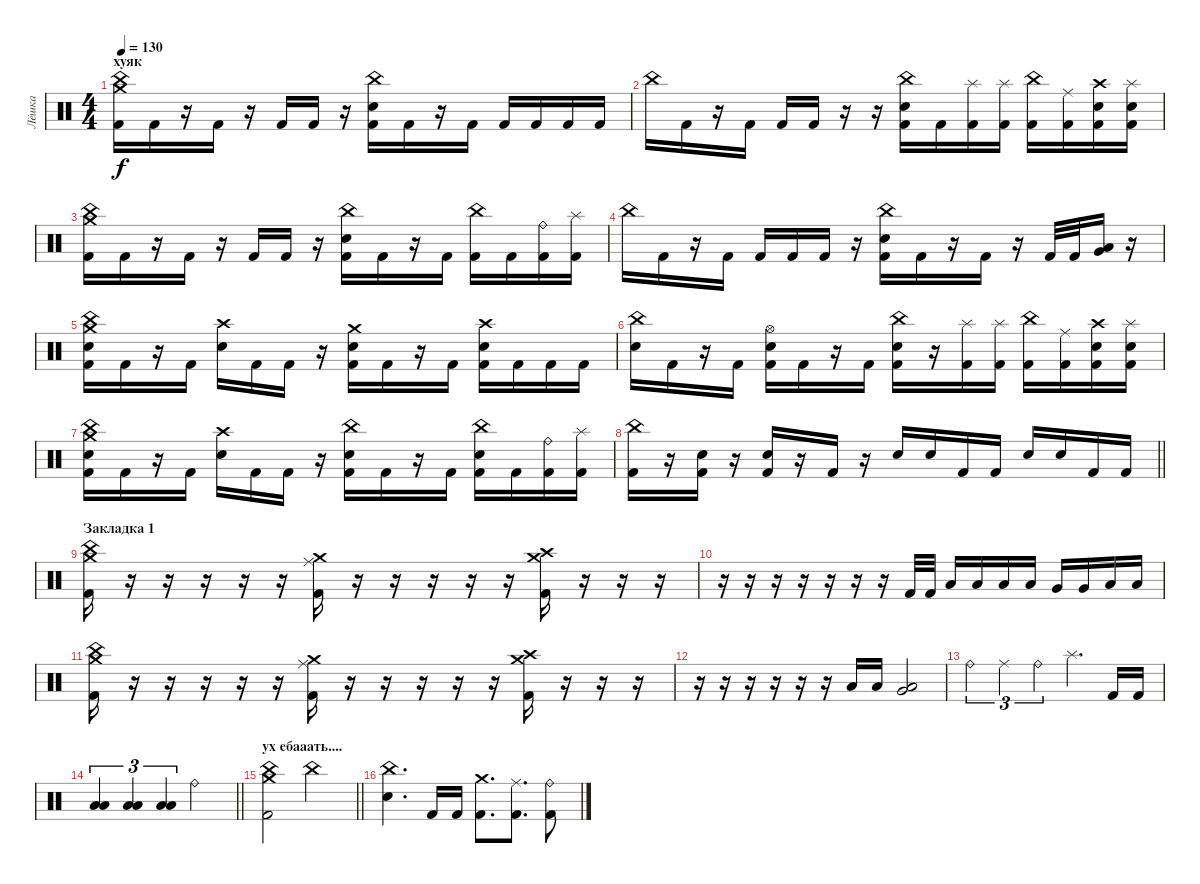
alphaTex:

\track ("Лёшка" "Лёшка") {instrument percussion}
\staff {score}
\articulation defaults
\ts (4 4)
\section ("" "хуяк")
\tempo 130
\clef neutral
\ks c
("China (hit)" "Crash medium (hit)" "Kick (hit) 2").16{dy f} "Kick (hit) 2".16 r.16 "Kick (hit) 2".16 r.16 "Kick (hit) 2".16 "Kick (hit) 2".16 r.16 ("China (hit)" "Electric Snare (hit)" "Kick (hit) 2").16 "Kick (hit) 2".16 r.16 "Kick (hit) 2".16 "Kick (hit) 2".16 "Kick (hit) 2".16 "Kick (hit) 2".16 "Kick (hit) 2".16 |
"China (hit)".16 "Kick (hit) 2".16 r.16 "Kick (hit) 2".16 "Kick (hit) 2".16 "Kick (hit) 2".16 r.16 r.16 ("China (hit)" "Electric Snare (hit)" "Kick (hit) 2").16 "Kick (hit) 2".16 ("Splash (hit)" "Kick (hit) 2").16 ("Splash (hit)" "Kick (hit) 2").16 ("China (hit)" "Kick (hit) 2").16 ("Ride (middle)" "Kick (hit) 2").16 ("Crash high (hit)" "Electric Snare (hit)" "Kick (hit) 2").16 ("Splash (hit)" "Electric Snare (hit)" "Kick (hit) 2").16 |
("China (hit)" "Crash medium (hit)" "Kick (hit) 2").16 "Kick (hit) 2".16 r.16 "Kick (hit) 2".16 r.16 "Kick (hit) 2".16 "Kick (hit) 2".16 r.16 ("China (hit)" "Electric Snare (hit)" "Kick (hit) 2").16 "Kick (hit) 2".16 r.16 "Kick (hit) 2".16 ("China (hit)" "Kick (hit) 2").16 "Kick (hit) 2".16 ("Ride (bell)" "Kick (hit) 2").16 ("Splash (hit)" "Kick (hit) 2").16 |
"China (hit)".16 "Kick (hit) 2".16 r.16 "Kick (hit) 2".16 "Kick (hit) 2".16 "Kick (hit) 2".16 "Kick (hit) 2".16 r.16 ("China (hit)" "Electric Snare (hit)" "Kick (hit) 2").16 "Kick (hit) 2".16 r.16 "Kick (hit) 2".16 r.16 "Kick (hit) 2".32 "Kick (hit) 2".32 ("Very Low Tom (hit)" "Low Tom (hit)").16 r.16 |
("China (hit)" "Crash medium (hit)" "Electric Snare (hit)" "Kick (hit) 2").16 "Kick (hit) 2".16 r.16 "Kick (hit) 2".16 ("Crash high (hit)" "Electric Snare (hit)").16 "Kick (hit) 2".16 "Kick (hit) 2".16 r.16 ("Crash medium (hit)" "Electric Snare (hit)" "Kick (hit) 2").16 "Kick (hit) 2".16 r.16 "Kick (hit) 2".16 ("Crash high (hit)" "Electric Snare (hit)" "Kick (hit) 2").16 "Kick (hit) 2".16 "Kick (hit) 2".16 "Kick (hit) 2".16 |
("China (hit)" "Electric Snare (hit)").16 "Kick (hit) 2".16 r.16 "Kick (hit) 2".16 ("Hi-Hat (open)" "Electric Snare (hit)" "Kick (hit) 2").16 "Kick (hit) 2".16 r.16 "Kick (hit) 2".16 ("China (hit)" "Electric Snare (hit)" "Kick (hit) 2").16 r.16 ("Splash (hit)" "Kick (hit) 2").16 ("Splash (hit)" "Kick (hit) 2").16 ("China (hit)" "Kick (hit) 2").16 ("Ride (middle)" "Kick (hit) 2").16 ("Crash high (hit)" "Electric Snare (hit)" "Kick (hit) 2").16 ("Splash (hit)" "Electric Snare (hit)" "Kick (hit) 2").16 |
("China (hit)" "Crash medium (hit)" "Electric Snare (hit)" "Kick (hit) 2").16 "Kick (hit) 2".16 r.16 "Kick (hit) 2".16 ("Crash high (hit)" "Electric Snare (hit)").16 "Kick (hit) 2".16 "Kick (hit) 2".16 r.16 ("China (hit)" "Electric Snare (hit)" "Kick (hit) 2").16 "Kick (hit) 2".16 r.16 "Kick (hit) 2".16 ("China (hit)" "Electric Snare (hit)" "Kick (hit) 2").16 "Kick (hit) 2".16 ("Ride (bell)" "Kick (hit) 2").16 ("Splash (hit)" "Kick (hit) 2").16 |
\barLineRight lightlight
("China (hit)" "Kick (hit) 2").16 r.16 ("Electric Snare (hit)" "Kick (hit) 2").16 r.16 ("Electric Snare (hit)" "Kick (hit) 2").16 r.16 "Kick (hit) 2".16 r.16 "Electric Snare (hit)".16 "Electric Snare (hit)".16 "Kick (hit) 2".16 "Kick (hit) 2".16 "Electric Snare (hit)".16 "Electric Snare (hit)".16 "Kick (hit) 2".16 "Kick (hit) 2".16 |
\section ("" "Закладка 1")
("Crash medium (hit)" "China (hit)" "Kick (hit) 2").16 r.16 r.16 r.16 r.16 r.16 ("Crash medium (hit)" "Ride (middle)" "Kick (hit) 2").16 r.16 r.16 r.16 r.16 r.16 ("Crash medium (hit)" "Crash high (hit)" "Kick (hit) 2").16 r.16 r.16 r.16 |
r.16 r.16 r.16 r.16 r.16 r.16 r.16 "Kick (hit) 2".32 "Kick (hit) 2".32 "Low Tom (hit)".16 "Low Tom (hit)".16 "Low Tom (hit)".16 "Low Tom (hit)".16 "Very Low Tom (hit)".16 "Very Low Tom (hit)".16 "Low Floor Tom (hit)".16 "Low Floor Tom (hit)".16 |
("Crash medium (hit)" "China (hit)" "Kick (hit) 2").16 r.16 r.16 r.16 r.16 r.16 ("Crash medium (hit)" "Ride (middle)" "Kick (hit) 2").16 r.16 r.16 r.16 r.16 r.16 ("Crash medium (hit)" "Crash high (hit)" "Kick (hit) 2").16 r.16 r.16 r.16 |
r.16 r.16 r.16 r.16 r.16 r.16 "Low Tom (hit)".16 "Low Tom (hit)".16 ("Low Tom (hit)" "Very Low Tom (hit)").2 |
"Ride (bell)".4{tu (3 2)} "Ride (middle)".4{tu (3 2)} "Ride (bell)".4{tu (3 2)} "Splash (hit)".4{d} "Kick (hit) 2".16 "Kick (hit) 2".16 |
\barLineRight lightlight
("Low Tom (hit)" "Low Tom (hit)").4{tu (3 2)} ("Low Tom (hit)" "Low Tom (hit)").4{tu (3 2)} ("Low Tom (hit)" "Low Tom (hit)").4{tu (3 2)} "Ride (bell)".2 |
\section ("" "ух ебааать....")
\barLineRight lightlight
("China (hit)" "Crash medium (hit)" "Kick (hit) 2").2 "China (hit)".2 |
("China (hit)" "Electric Snare (hit)").4{d} "Kick (hit) 2".16 "Kick (hit) 2".16 ("Crash medium (hit)" "Kick (hit) 2").8{d} ("Ride (middle)" "Kick (hit) 2").8{d} ("Ride (bell)" "Kick (hit) 2").8
